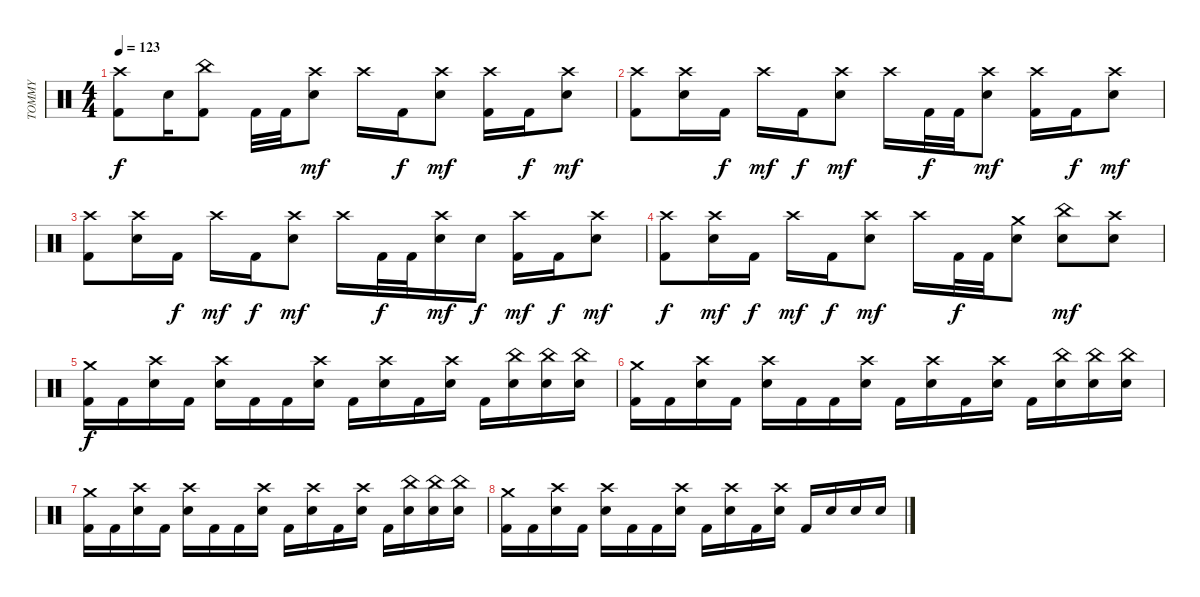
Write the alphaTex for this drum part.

\track ("TOMMY" "TOMMY") {instrument percussion}
\staff {score}
\articulation defaults
\ts (4 4)
\tempo 123
\clef neutral
\ks c
("Kick (hit) 2" "Crash high (hit)").8{dy f} "Snare (hit) 2".16 ("Kick (hit) 2" "China (hit)").8 "Kick (hit) 2".32 "Kick (hit) 2".32 ("Snare (hit) 2" "Crash high (hit)").8{dy mf} "Crash high (hit)".16 "Kick (hit) 2".16{dy f} ("Snare (hit) 2" "Crash high (hit)").8{dy mf} ("Kick (hit) 2" "Crash high (hit)").16 "Kick (hit) 2".16{dy f} ("Snare (hit) 2" "Crash high (hit)").8{dy mf} |
("Kick (hit) 2" "Crash high (hit)").8 ("Snare (hit) 2" "Crash high (hit)").16 "Kick (hit) 2".16{dy f} "Crash high (hit)".16{dy mf} "Kick (hit) 2".16{dy f} ("Snare (hit) 2" "Crash high (hit)").8{dy mf} "Crash high (hit)".16 "Kick (hit) 2".32{dy f} "Kick (hit) 2".32 ("Snare (hit) 2" "Crash high (hit)").8{dy mf} ("Kick (hit) 2" "Crash high (hit)").16 "Kick (hit) 2".16{dy f} ("Snare (hit) 2" "Crash high (hit)").8{dy mf} |
("Kick (hit) 2" "Crash high (hit)").8 ("Snare (hit) 2" "Crash high (hit)").16 "Kick (hit) 2".16{dy f} "Crash high (hit)".16{dy mf} "Kick (hit) 2".16{dy f} ("Snare (hit) 2" "Crash high (hit)").8{dy mf} "Crash high (hit)".16 "Kick (hit) 2".32{dy f} "Kick (hit) 2".32 ("Snare (hit) 2" "Crash high (hit)").16{dy mf} "Snare (hit) 2".16{dy f} ("Kick (hit) 2" "Crash high (hit)").16{dy mf} "Kick (hit) 2".16{dy f} ("Snare (hit) 2" "Crash high (hit)").8{dy mf} |
("Kick (hit) 2" "Crash high (hit)").8{dy f} ("Snare (hit) 2" "Crash high (hit)").16{dy mf} "Kick (hit) 2".16{dy f} "Crash high (hit)".16{dy mf} "Kick (hit) 2".16{dy f} ("Snare (hit) 2" "Crash high (hit)").8{dy mf} "Crash high (hit)".16 "Kick (hit) 2".32{dy f} "Kick (hit) 2".32 ("Snare (hit) 2" "Crash medium (hit)").8 ("Snare (hit) 2" "China (hit)").8{dy mf} ("Snare (hit) 2" "Crash high (hit)").8 |
("Kick (hit) 2" "Crash medium (hit)").16{dy f} "Kick (hit) 2".16 ("Snare (hit) 2" "Crash high (hit)").16 "Kick (hit) 2".16 ("Snare (hit) 2" "Crash high (hit)").16 "Kick (hit) 2".16 "Kick (hit) 2".16 ("Snare (hit) 2" "Crash high (hit)").16 "Kick (hit) 2".16 ("Snare (hit) 2" "Crash high (hit)").16 "Kick (hit) 2".16 ("Snare (hit) 2" "Crash high (hit)").16 "Kick (hit) 2".16 ("Snare (hit) 2" "China (hit)").16 ("Snare (hit) 2" "China (hit)").16 ("Snare (hit) 2" "China (hit)").16 |
("Kick (hit) 2" "Crash medium (hit)").16 "Kick (hit) 2".16 ("Snare (hit) 2" "Crash high (hit)").16 "Kick (hit) 2".16 ("Snare (hit) 2" "Crash high (hit)").16 "Kick (hit) 2".16 "Kick (hit) 2".16 ("Snare (hit) 2" "Crash high (hit)").16 "Kick (hit) 2".16 ("Snare (hit) 2" "Crash high (hit)").16 "Kick (hit) 2".16 ("Snare (hit) 2" "Crash high (hit)").16 "Kick (hit) 2".16 ("Snare (hit) 2" "China (hit)").16 ("Snare (hit) 2" "China (hit)").16 ("Snare (hit) 2" "China (hit)").16 |
("Kick (hit) 2" "Crash medium (hit)").16 "Kick (hit) 2".16 ("Snare (hit) 2" "Crash high (hit)").16 "Kick (hit) 2".16 ("Snare (hit) 2" "Crash high (hit)").16 "Kick (hit) 2".16 "Kick (hit) 2".16 ("Snare (hit) 2" "Crash high (hit)").16 "Kick (hit) 2".16 ("Snare (hit) 2" "Crash high (hit)").16 "Kick (hit) 2".16 ("Snare (hit) 2" "Crash high (hit)").16 "Kick (hit) 2".16 ("Snare (hit) 2" "China (hit)").16 ("Snare (hit) 2" "China (hit)").16 ("Snare (hit) 2" "China (hit)").16 |
("Kick (hit) 2" "Crash medium (hit)").16 "Kick (hit) 2".16 ("Snare (hit) 2" "Crash high (hit)").16 "Kick (hit) 2".16 ("Snare (hit) 2" "Crash high (hit)").16 "Kick (hit) 2".16 "Kick (hit) 2".16 ("Snare (hit) 2" "Crash high (hit)").16 "Kick (hit) 2".16 ("Snare (hit) 2" "Crash high (hit)").16 "Kick (hit) 2".16 ("Snare (hit) 2" "Crash high (hit)").16 "Kick (hit) 2".16 "Snare (hit) 2".16 "Snare (hit) 2".16 "Snare (hit) 2".16
